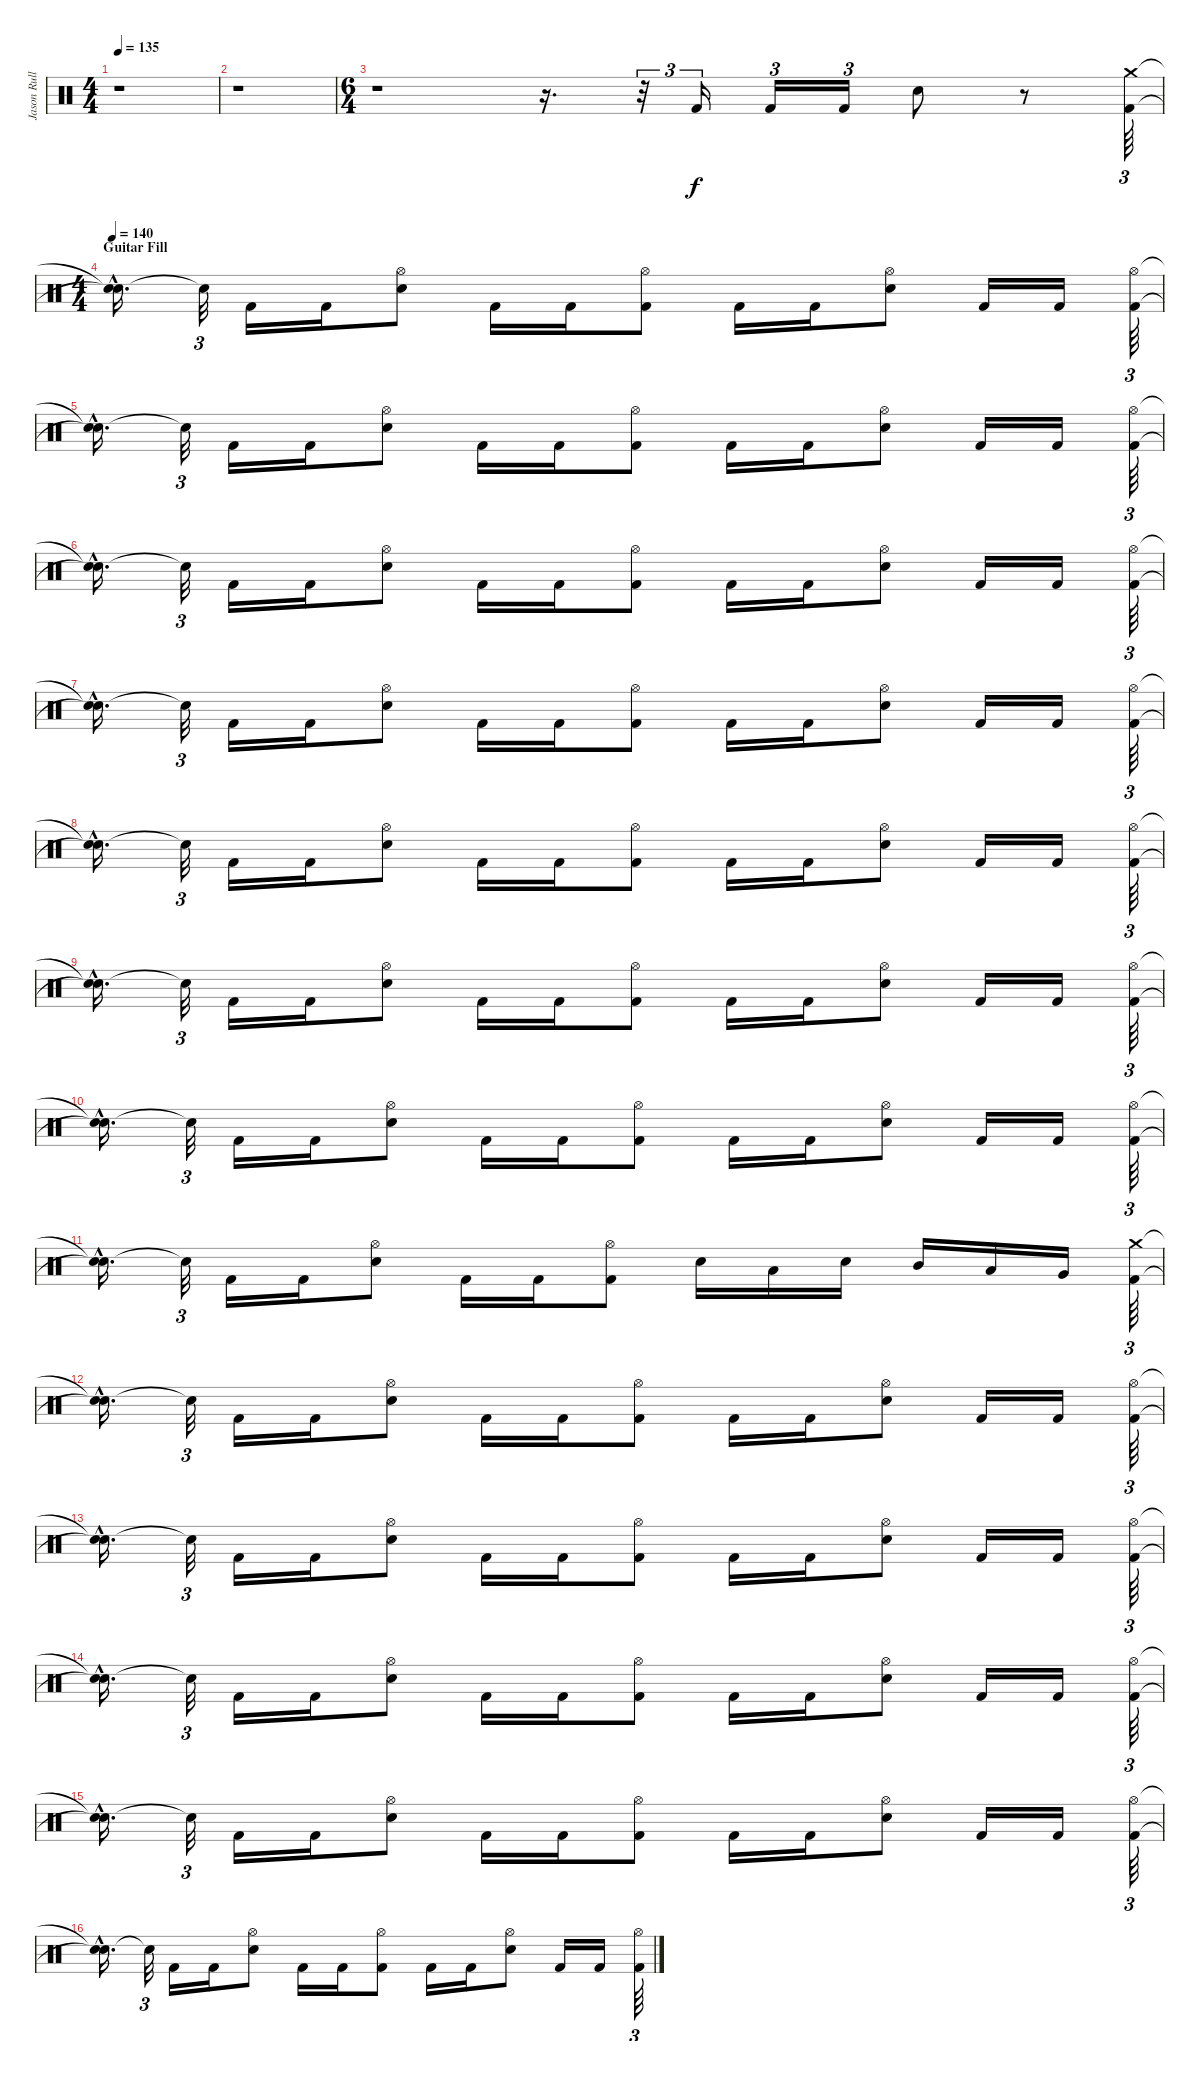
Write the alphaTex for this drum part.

\track ("Jason Rullo" "Jason Rull") {instrument percussion}
\staff {score}
\articulation defaults
\ts (4 4)
\tempo 135
\clef neutral
\ks c
r.1{dy f} |
r.1 |
\ts (6 4)
r.1 r.16{d} r.32{tu (3 2)} "Kick (hit) 2".16{tu (3 2) volume 15} "Kick (hit) 2".16{tu (3 2)} "Kick (hit) 2".16{tu (3 2)} "Electric Snare (hit)".8 r.8 ("Crash medium (hit)" "Kick (hit) 2").64{tu (3 2)} |
\ts (4 4)
\section ("" "Guitar Fill")
\tempo 140
("Snare (hit)"{hac t} "Snare (hit)"{hac t}).16{d} "Snare (hit)"{t}.32{tu (3 2)} "Kick (hit) 2".16 "Kick (hit) 2".16 ("Hi-Hat (open)" "Electric Snare (hit)").8 "Kick (hit) 2".16 "Kick (hit) 2".16 ("Hi-Hat (open)" "Kick (hit) 2").8 "Kick (hit) 2".16 "Kick (hit) 2".16 ("Hi-Hat (open)" "Electric Snare (hit)").8 "Kick (hit) 2".16 "Kick (hit) 2".16 ("Hi-Hat (open)" "Kick (hit) 2").64{tu (3 2)} |
("Snare (hit)"{hac t} "Snare (hit)"{hac t}).16{d} "Snare (hit)"{t}.32{tu (3 2)} "Kick (hit) 2".16 "Kick (hit) 2".16 ("Hi-Hat (open)" "Electric Snare (hit)").8 "Kick (hit) 2".16 "Kick (hit) 2".16 ("Hi-Hat (open)" "Kick (hit) 2").8 "Kick (hit) 2".16 "Kick (hit) 2".16 ("Hi-Hat (open)" "Electric Snare (hit)").8 "Kick (hit) 2".16 "Kick (hit) 2".16 ("Hi-Hat (open)" "Kick (hit) 2").64{tu (3 2)} |
("Snare (hit)"{hac t} "Snare (hit)"{hac t}).16{d} "Snare (hit)"{t}.32{tu (3 2)} "Kick (hit) 2".16 "Kick (hit) 2".16 ("Hi-Hat (open)" "Electric Snare (hit)").8 "Kick (hit) 2".16 "Kick (hit) 2".16 ("Hi-Hat (open)" "Kick (hit) 2").8 "Kick (hit) 2".16 "Kick (hit) 2".16 ("Hi-Hat (open)" "Electric Snare (hit)").8 "Kick (hit) 2".16 "Kick (hit) 2".16 ("Hi-Hat (open)" "Kick (hit) 2").64{tu (3 2)} |
("Snare (hit)"{hac t} "Snare (hit)"{hac t}).16{d} "Snare (hit)"{t}.32{tu (3 2)} "Kick (hit) 2".16 "Kick (hit) 2".16 ("Hi-Hat (open)" "Electric Snare (hit)").8 "Kick (hit) 2".16 "Kick (hit) 2".16 ("Hi-Hat (open)" "Kick (hit) 2").8 "Kick (hit) 2".16 "Kick (hit) 2".16 ("Hi-Hat (open)" "Electric Snare (hit)").8 "Kick (hit) 2".16 "Kick (hit) 2".16 ("Hi-Hat (open)" "Kick (hit) 2").64{tu (3 2)} |
("Snare (hit)"{hac t} "Snare (hit)"{hac t}).16{d} "Snare (hit)"{t}.32{tu (3 2)} "Kick (hit) 2".16 "Kick (hit) 2".16 ("Hi-Hat (open)" "Electric Snare (hit)").8 "Kick (hit) 2".16 "Kick (hit) 2".16 ("Hi-Hat (open)" "Kick (hit) 2").8 "Kick (hit) 2".16 "Kick (hit) 2".16 ("Hi-Hat (open)" "Electric Snare (hit)").8 "Kick (hit) 2".16 "Kick (hit) 2".16 ("Hi-Hat (open)" "Kick (hit) 2").64{tu (3 2)} |
("Snare (hit)"{hac t} "Snare (hit)"{hac t}).16{d} "Snare (hit)"{t}.32{tu (3 2)} "Kick (hit) 2".16 "Kick (hit) 2".16 ("Hi-Hat (open)" "Electric Snare (hit)").8 "Kick (hit) 2".16 "Kick (hit) 2".16 ("Hi-Hat (open)" "Kick (hit) 2").8 "Kick (hit) 2".16 "Kick (hit) 2".16 ("Hi-Hat (open)" "Electric Snare (hit)").8 "Kick (hit) 2".16 "Kick (hit) 2".16 ("Hi-Hat (open)" "Kick (hit) 2").64{tu (3 2)} |
("Snare (hit)"{hac t} "Snare (hit)"{hac t}).16{d} "Snare (hit)"{t}.32{tu (3 2)} "Kick (hit) 2".16 "Kick (hit) 2".16 ("Hi-Hat (open)" "Electric Snare (hit)").8 "Kick (hit) 2".16 "Kick (hit) 2".16 ("Hi-Hat (open)" "Kick (hit) 2").8 "Kick (hit) 2".16 "Kick (hit) 2".16 ("Hi-Hat (open)" "Electric Snare (hit)").8 "Kick (hit) 2".16 "Kick (hit) 2".16 ("Hi-Hat (open)" "Kick (hit) 2").64{tu (3 2)} |
("Snare (hit)"{hac t} "Snare (hit)"{hac t}).16{d} "Snare (hit)"{t}.32{tu (3 2)} "Kick (hit) 2".16 "Kick (hit) 2".16 ("Hi-Hat (open)" "Electric Snare (hit)").8 "Kick (hit) 2".16 "Kick (hit) 2".16 ("Hi-Hat (open)" "Kick (hit) 2").8 "Electric Snare (hit)".16 "Low Tom (hit)".16 "Electric Snare (hit)".16 "Mid Tom (hit)".16 "Low Tom (hit)".16 "Very Low Tom (hit)".16 ("Crash medium (hit)" "Kick (hit) 2").64{tu (3 2)} |
("Snare (hit)"{hac t} "Snare (hit)"{hac t}).16{d} "Snare (hit)"{t}.32{tu (3 2)} "Kick (hit) 2".16 "Kick (hit) 2".16 ("Hi-Hat (open)" "Electric Snare (hit)").8 "Kick (hit) 2".16 "Kick (hit) 2".16 ("Hi-Hat (open)" "Kick (hit) 2").8 "Kick (hit) 2".16 "Kick (hit) 2".16 ("Hi-Hat (open)" "Electric Snare (hit)").8 "Kick (hit) 2".16 "Kick (hit) 2".16 ("Hi-Hat (open)" "Kick (hit) 2").64{tu (3 2)} |
("Snare (hit)"{hac t} "Snare (hit)"{hac t}).16{d} "Snare (hit)"{t}.32{tu (3 2)} "Kick (hit) 2".16 "Kick (hit) 2".16 ("Hi-Hat (open)" "Electric Snare (hit)").8 "Kick (hit) 2".16 "Kick (hit) 2".16 ("Hi-Hat (open)" "Kick (hit) 2").8 "Kick (hit) 2".16 "Kick (hit) 2".16 ("Hi-Hat (open)" "Electric Snare (hit)").8 "Kick (hit) 2".16 "Kick (hit) 2".16 ("Hi-Hat (open)" "Kick (hit) 2").64{tu (3 2)} |
("Snare (hit)"{hac t} "Snare (hit)"{hac t}).16{d} "Snare (hit)"{t}.32{tu (3 2)} "Kick (hit) 2".16 "Kick (hit) 2".16 ("Hi-Hat (open)" "Electric Snare (hit)").8 "Kick (hit) 2".16 "Kick (hit) 2".16 ("Hi-Hat (open)" "Kick (hit) 2").8 "Kick (hit) 2".16 "Kick (hit) 2".16 ("Hi-Hat (open)" "Electric Snare (hit)").8 "Kick (hit) 2".16 "Kick (hit) 2".16 ("Hi-Hat (open)" "Kick (hit) 2").64{tu (3 2)} |
("Snare (hit)"{hac t} "Snare (hit)"{hac t}).16{d} "Snare (hit)"{t}.32{tu (3 2)} "Kick (hit) 2".16 "Kick (hit) 2".16 ("Hi-Hat (open)" "Electric Snare (hit)").8 "Kick (hit) 2".16 "Kick (hit) 2".16 ("Hi-Hat (open)" "Kick (hit) 2").8 "Kick (hit) 2".16 "Kick (hit) 2".16 ("Hi-Hat (open)" "Electric Snare (hit)").8 "Kick (hit) 2".16 "Kick (hit) 2".16 ("Hi-Hat (open)" "Kick (hit) 2").64{tu (3 2)} |
("Snare (hit)"{hac t} "Snare (hit)"{hac t}).16{d} "Snare (hit)"{t}.32{tu (3 2)} "Kick (hit) 2".16 "Kick (hit) 2".16 ("Hi-Hat (open)" "Electric Snare (hit)").8 "Kick (hit) 2".16 "Kick (hit) 2".16 ("Hi-Hat (open)" "Kick (hit) 2").8 "Kick (hit) 2".16 "Kick (hit) 2".16 ("Hi-Hat (open)" "Electric Snare (hit)").8 "Kick (hit) 2".16 "Kick (hit) 2".16 ("Hi-Hat (open)" "Kick (hit) 2").64{tu (3 2)}
